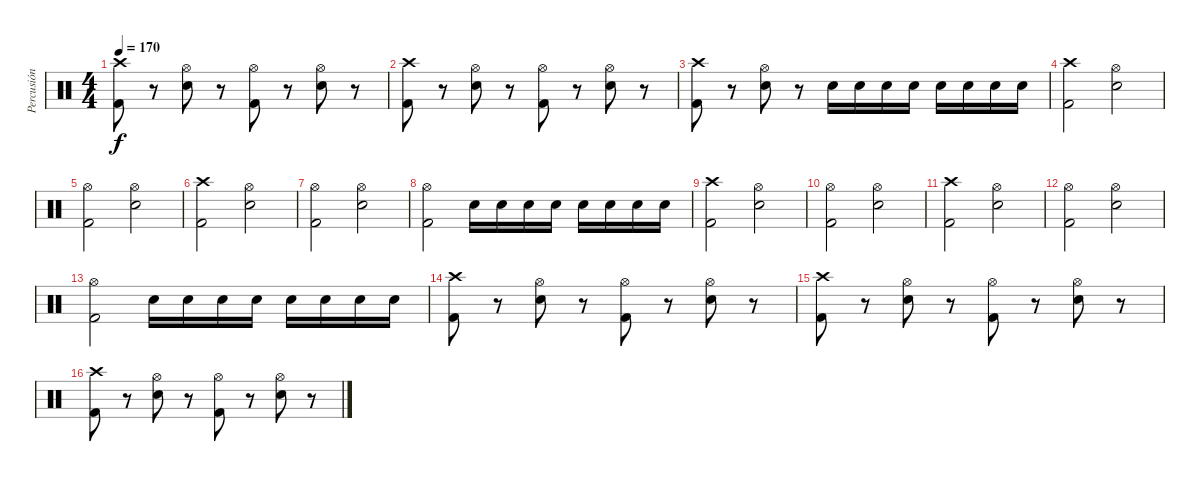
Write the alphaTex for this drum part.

\track ("Percusión" "Percusión") {instrument percussion}
\staff {score}
\articulation defaults
\ts (4 4)
\tempo 170
\clef neutral
\ks c
("Crash high (hit)" "Kick (hit) 2").8{dy f} r.8 ("Hi-Hat (open)" "Electric Snare (hit)").8 r.8 ("Hi-Hat (open)" "Kick (hit) 2").8 r.8 ("Hi-Hat (open)" "Electric Snare (hit)").8 r.8 |
("Crash high (hit)" "Kick (hit) 2").8 r.8 ("Hi-Hat (open)" "Electric Snare (hit)").8 r.8 ("Hi-Hat (open)" "Kick (hit) 2").8 r.8 ("Hi-Hat (open)" "Electric Snare (hit)").8 r.8 |
("Crash high (hit)" "Kick (hit) 2").8 r.8 ("Hi-Hat (open)" "Electric Snare (hit)").8 r.8 "Electric Snare (hit)".16 "Electric Snare (hit)".16 "Electric Snare (hit)".16 "Electric Snare (hit)".16 "Electric Snare (hit)".16 "Electric Snare (hit)".16 "Electric Snare (hit)".16 "Electric Snare (hit)".16 |
("Crash high (hit)" "Kick (hit) 2").2 ("Hi-Hat (open)" "Electric Snare (hit)").2 |
("Hi-Hat (open)" "Kick (hit) 2").2 ("Hi-Hat (open)" "Electric Snare (hit)").2 |
("Crash high (hit)" "Kick (hit) 2").2 ("Hi-Hat (open)" "Electric Snare (hit)").2 |
("Hi-Hat (open)" "Kick (hit) 2").2 ("Hi-Hat (open)" "Electric Snare (hit)").2 |
("Hi-Hat (open)" "Kick (hit) 2").2 "Electric Snare (hit)".16 "Electric Snare (hit)".16 "Electric Snare (hit)".16 "Electric Snare (hit)".16 "Electric Snare (hit)".16 "Electric Snare (hit)".16 "Electric Snare (hit)".16 "Electric Snare (hit)".16 |
("Crash high (hit)" "Kick (hit) 2").2 ("Hi-Hat (open)" "Electric Snare (hit)").2 |
("Hi-Hat (open)" "Kick (hit) 2").2 ("Hi-Hat (open)" "Electric Snare (hit)").2 |
("Crash high (hit)" "Kick (hit) 2").2 ("Hi-Hat (open)" "Electric Snare (hit)").2 |
("Hi-Hat (open)" "Kick (hit) 2").2 ("Hi-Hat (open)" "Electric Snare (hit)").2 |
("Hi-Hat (open)" "Kick (hit) 2").2 "Electric Snare (hit)".16 "Electric Snare (hit)".16 "Electric Snare (hit)".16 "Electric Snare (hit)".16 "Electric Snare (hit)".16 "Electric Snare (hit)".16 "Electric Snare (hit)".16 "Electric Snare (hit)".16 |
("Crash high (hit)" "Kick (hit) 2").8 r.8 ("Hi-Hat (open)" "Electric Snare (hit)").8 r.8 ("Hi-Hat (open)" "Kick (hit) 2").8 r.8 ("Hi-Hat (open)" "Electric Snare (hit)").8 r.8 |
("Crash high (hit)" "Kick (hit) 2").8 r.8 ("Hi-Hat (open)" "Electric Snare (hit)").8 r.8 ("Hi-Hat (open)" "Kick (hit) 2").8 r.8 ("Hi-Hat (open)" "Electric Snare (hit)").8 r.8 |
("Crash high (hit)" "Kick (hit) 2").8 r.8 ("Hi-Hat (open)" "Electric Snare (hit)").8 r.8 ("Hi-Hat (open)" "Kick (hit) 2").8 r.8 ("Hi-Hat (open)" "Electric Snare (hit)").8 r.8
